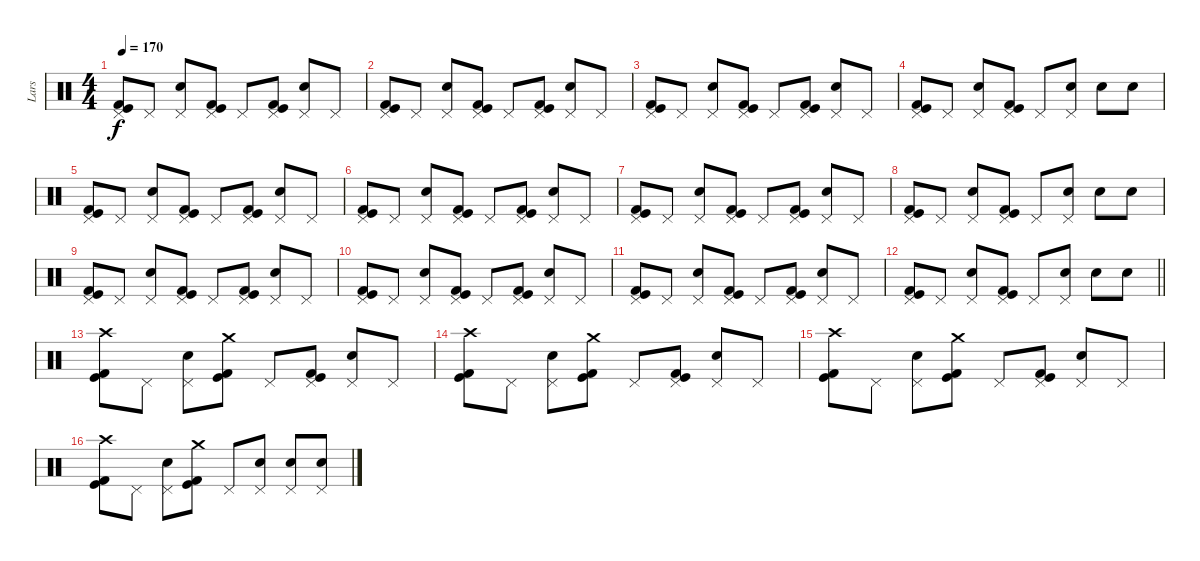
\track ("Lars" "Lars") {instrument percussion}
\staff {score}
\articulation defaults
\ts (4 4)
\tempo 170
\clef neutral
\ks c
("Pedal Hi-Hat (hit)" "Kick (hit)" "Kick (hit) 2").8{dy f} "Pedal Hi-Hat (hit)".8 ("Pedal Hi-Hat (hit)" "Electric Snare (hit)").8 ("Pedal Hi-Hat (hit)" "Kick (hit)" "Kick (hit) 2").8 "Pedal Hi-Hat (hit)".8 ("Pedal Hi-Hat (hit)" "Kick (hit)" "Kick (hit) 2").8 ("Pedal Hi-Hat (hit)" "Electric Snare (hit)").8 "Pedal Hi-Hat (hit)".8 |
("Pedal Hi-Hat (hit)" "Kick (hit)" "Kick (hit) 2").8 "Pedal Hi-Hat (hit)".8 ("Pedal Hi-Hat (hit)" "Electric Snare (hit)").8 ("Pedal Hi-Hat (hit)" "Kick (hit)" "Kick (hit) 2").8 "Pedal Hi-Hat (hit)".8 ("Pedal Hi-Hat (hit)" "Kick (hit)" "Kick (hit) 2").8 ("Pedal Hi-Hat (hit)" "Electric Snare (hit)").8 "Pedal Hi-Hat (hit)".8 |
("Pedal Hi-Hat (hit)" "Kick (hit)" "Kick (hit) 2").8 "Pedal Hi-Hat (hit)".8 ("Pedal Hi-Hat (hit)" "Electric Snare (hit)").8 ("Pedal Hi-Hat (hit)" "Kick (hit)" "Kick (hit) 2").8 "Pedal Hi-Hat (hit)".8 ("Pedal Hi-Hat (hit)" "Kick (hit)" "Kick (hit) 2").8 ("Pedal Hi-Hat (hit)" "Electric Snare (hit)").8 "Pedal Hi-Hat (hit)".8 |
("Pedal Hi-Hat (hit)" "Kick (hit)" "Kick (hit) 2").8 "Pedal Hi-Hat (hit)".8 ("Pedal Hi-Hat (hit)" "Electric Snare (hit)").8 ("Pedal Hi-Hat (hit)" "Kick (hit)" "Kick (hit) 2").8 "Pedal Hi-Hat (hit)".8 ("Pedal Hi-Hat (hit)" "Electric Snare (hit)").8 "Electric Snare (hit)".8 "Electric Snare (hit)".8 |
("Pedal Hi-Hat (hit)" "Kick (hit)" "Kick (hit) 2").8 "Pedal Hi-Hat (hit)".8 ("Pedal Hi-Hat (hit)" "Electric Snare (hit)").8 ("Pedal Hi-Hat (hit)" "Kick (hit)" "Kick (hit) 2").8 "Pedal Hi-Hat (hit)".8 ("Pedal Hi-Hat (hit)" "Kick (hit)" "Kick (hit) 2").8 ("Pedal Hi-Hat (hit)" "Electric Snare (hit)").8 "Pedal Hi-Hat (hit)".8 |
("Pedal Hi-Hat (hit)" "Kick (hit)" "Kick (hit) 2").8 "Pedal Hi-Hat (hit)".8 ("Pedal Hi-Hat (hit)" "Electric Snare (hit)").8 ("Pedal Hi-Hat (hit)" "Kick (hit)" "Kick (hit) 2").8 "Pedal Hi-Hat (hit)".8 ("Pedal Hi-Hat (hit)" "Kick (hit)" "Kick (hit) 2").8 ("Pedal Hi-Hat (hit)" "Electric Snare (hit)").8 "Pedal Hi-Hat (hit)".8 |
("Pedal Hi-Hat (hit)" "Kick (hit)" "Kick (hit) 2").8 "Pedal Hi-Hat (hit)".8 ("Pedal Hi-Hat (hit)" "Electric Snare (hit)").8 ("Pedal Hi-Hat (hit)" "Kick (hit)" "Kick (hit) 2").8 "Pedal Hi-Hat (hit)".8 ("Pedal Hi-Hat (hit)" "Kick (hit)" "Kick (hit) 2").8 ("Pedal Hi-Hat (hit)" "Electric Snare (hit)").8 "Pedal Hi-Hat (hit)".8 |
("Pedal Hi-Hat (hit)" "Kick (hit)" "Kick (hit) 2").8 "Pedal Hi-Hat (hit)".8 ("Pedal Hi-Hat (hit)" "Electric Snare (hit)").8 ("Pedal Hi-Hat (hit)" "Kick (hit)" "Kick (hit) 2").8 "Pedal Hi-Hat (hit)".8 ("Pedal Hi-Hat (hit)" "Electric Snare (hit)").8 "Electric Snare (hit)".8 "Electric Snare (hit)".8 |
("Pedal Hi-Hat (hit)" "Kick (hit)" "Kick (hit) 2").8 "Pedal Hi-Hat (hit)".8 ("Pedal Hi-Hat (hit)" "Electric Snare (hit)").8 ("Pedal Hi-Hat (hit)" "Kick (hit)" "Kick (hit) 2").8 "Pedal Hi-Hat (hit)".8 ("Pedal Hi-Hat (hit)" "Kick (hit)" "Kick (hit) 2").8 ("Pedal Hi-Hat (hit)" "Electric Snare (hit)").8 "Pedal Hi-Hat (hit)".8 |
("Pedal Hi-Hat (hit)" "Kick (hit)" "Kick (hit) 2").8 "Pedal Hi-Hat (hit)".8 ("Pedal Hi-Hat (hit)" "Electric Snare (hit)").8 ("Pedal Hi-Hat (hit)" "Kick (hit)" "Kick (hit) 2").8 "Pedal Hi-Hat (hit)".8 ("Pedal Hi-Hat (hit)" "Kick (hit)" "Kick (hit) 2").8 ("Pedal Hi-Hat (hit)" "Electric Snare (hit)").8 "Pedal Hi-Hat (hit)".8 |
("Pedal Hi-Hat (hit)" "Kick (hit)" "Kick (hit) 2").8 "Pedal Hi-Hat (hit)".8 ("Pedal Hi-Hat (hit)" "Electric Snare (hit)").8 ("Pedal Hi-Hat (hit)" "Kick (hit)" "Kick (hit) 2").8 "Pedal Hi-Hat (hit)".8 ("Pedal Hi-Hat (hit)" "Kick (hit)" "Kick (hit) 2").8 ("Pedal Hi-Hat (hit)" "Electric Snare (hit)").8 "Pedal Hi-Hat (hit)".8 |
\barLineRight lightlight
("Pedal Hi-Hat (hit)" "Kick (hit)" "Kick (hit) 2").8 "Pedal Hi-Hat (hit)".8 ("Pedal Hi-Hat (hit)" "Electric Snare (hit)").8 ("Pedal Hi-Hat (hit)" "Kick (hit)" "Kick (hit) 2").8 "Pedal Hi-Hat (hit)".8 ("Pedal Hi-Hat (hit)" "Electric Snare (hit)").8 "Electric Snare (hit)".8 "Electric Snare (hit)".8 |
\section ("" "")
("Crash high (hit)" "Kick (hit)" "Kick (hit) 2").8 "Pedal Hi-Hat (hit)".8 ("Pedal Hi-Hat (hit)" "Electric Snare (hit)").8 ("Crash medium (hit)" "Kick (hit)" "Kick (hit) 2").8 "Pedal Hi-Hat (hit)".8 ("Pedal Hi-Hat (hit)" "Kick (hit)" "Kick (hit) 2").8 ("Pedal Hi-Hat (hit)" "Electric Snare (hit)").8 "Pedal Hi-Hat (hit)".8 |
("Crash high (hit)" "Kick (hit)" "Kick (hit) 2").8 "Pedal Hi-Hat (hit)".8 ("Pedal Hi-Hat (hit)" "Electric Snare (hit)").8 ("Crash medium (hit)" "Kick (hit)" "Kick (hit) 2").8 "Pedal Hi-Hat (hit)".8 ("Pedal Hi-Hat (hit)" "Kick (hit)" "Kick (hit) 2").8 ("Pedal Hi-Hat (hit)" "Electric Snare (hit)").8 "Pedal Hi-Hat (hit)".8 |
("Crash high (hit)" "Kick (hit)" "Kick (hit) 2").8 "Pedal Hi-Hat (hit)".8 ("Pedal Hi-Hat (hit)" "Electric Snare (hit)").8 ("Crash medium (hit)" "Kick (hit)" "Kick (hit) 2").8 "Pedal Hi-Hat (hit)".8 ("Pedal Hi-Hat (hit)" "Kick (hit)" "Kick (hit) 2").8 ("Pedal Hi-Hat (hit)" "Electric Snare (hit)").8 "Pedal Hi-Hat (hit)".8 |
("Crash high (hit)" "Kick (hit)" "Kick (hit) 2").8 "Pedal Hi-Hat (hit)".8 ("Pedal Hi-Hat (hit)" "Electric Snare (hit)").8 ("Crash medium (hit)" "Kick (hit)" "Kick (hit) 2").8 "Pedal Hi-Hat (hit)".8 ("Pedal Hi-Hat (hit)" "Electric Snare (hit)").8 ("Pedal Hi-Hat (hit)" "Electric Snare (hit)").8 ("Pedal Hi-Hat (hit)" "Electric Snare (hit)").8
